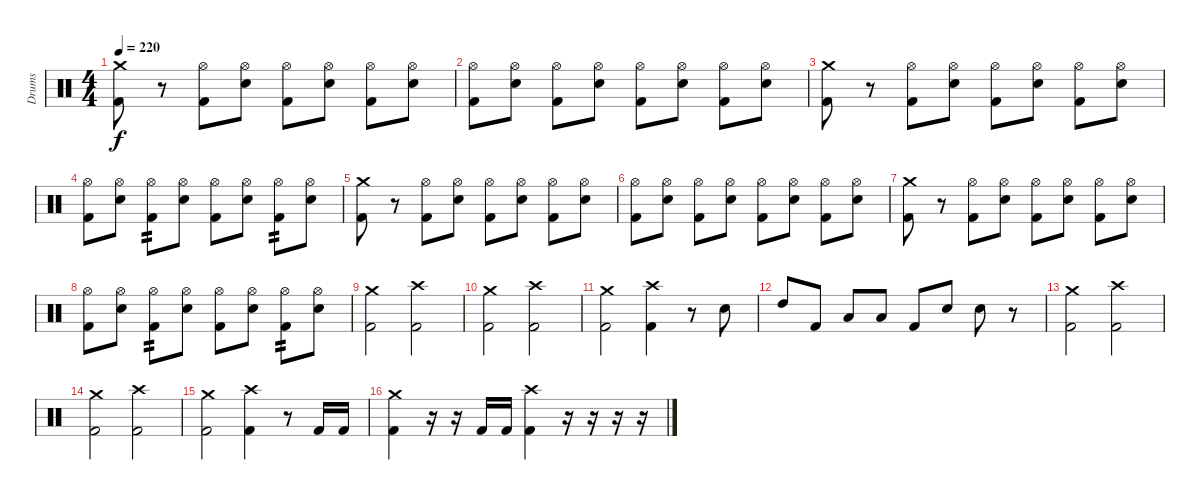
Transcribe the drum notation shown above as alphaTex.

\track ("Drums" "Drums") {instrument percussion}
\staff {score}
\articulation defaults
\ts (4 4)
\tempo 220
\clef neutral
\ks c
("Crash medium (hit)" "Kick (hit) 2").8{dy f} r.8 ("Hi-Hat (open)" "Kick (hit) 2").8 ("Hi-Hat (open)" "Snare (hit) 2").8 ("Hi-Hat (open)" "Kick (hit) 2").8 ("Hi-Hat (open)" "Snare (hit) 2").8 ("Hi-Hat (open)" "Kick (hit) 2").8 ("Hi-Hat (open)" "Snare (hit) 2").8 |
("Hi-Hat (open)" "Kick (hit) 2").8 ("Hi-Hat (open)" "Snare (hit) 2").8 ("Hi-Hat (open)" "Kick (hit) 2").8 ("Hi-Hat (open)" "Snare (hit) 2").8 ("Hi-Hat (open)" "Kick (hit) 2").8 ("Hi-Hat (open)" "Snare (hit) 2").8 ("Hi-Hat (open)" "Kick (hit) 2").8 ("Hi-Hat (open)" "Snare (hit) 2").8 |
("Crash medium (hit)" "Kick (hit) 2").8 r.8 ("Hi-Hat (open)" "Kick (hit) 2").8 ("Hi-Hat (open)" "Snare (hit) 2").8 ("Hi-Hat (open)" "Kick (hit) 2").8 ("Hi-Hat (open)" "Snare (hit) 2").8 ("Hi-Hat (open)" "Kick (hit) 2").8 ("Hi-Hat (open)" "Snare (hit) 2").8 |
("Hi-Hat (open)" "Kick (hit) 2").8 ("Hi-Hat (open)" "Snare (hit) 2").8 ("Hi-Hat (open)" "Kick (hit) 2").8{tp 2} ("Hi-Hat (open)" "Snare (hit) 2").8 ("Hi-Hat (open)" "Kick (hit) 2").8 ("Hi-Hat (open)" "Snare (hit) 2").8 ("Hi-Hat (open)" "Kick (hit) 2").8{tp 2} ("Hi-Hat (open)" "Snare (hit) 2").8 |
("Crash medium (hit)" "Kick (hit) 2").8 r.8 ("Hi-Hat (open)" "Kick (hit) 2").8 ("Hi-Hat (open)" "Snare (hit) 2").8 ("Hi-Hat (open)" "Kick (hit) 2").8 ("Hi-Hat (open)" "Snare (hit) 2").8 ("Hi-Hat (open)" "Kick (hit) 2").8 ("Hi-Hat (open)" "Snare (hit) 2").8 |
("Hi-Hat (open)" "Kick (hit) 2").8 ("Hi-Hat (open)" "Snare (hit) 2").8 ("Hi-Hat (open)" "Kick (hit) 2").8 ("Hi-Hat (open)" "Snare (hit) 2").8 ("Hi-Hat (open)" "Kick (hit) 2").8 ("Hi-Hat (open)" "Snare (hit) 2").8 ("Hi-Hat (open)" "Kick (hit) 2").8 ("Hi-Hat (open)" "Snare (hit) 2").8 |
("Crash medium (hit)" "Kick (hit) 2").8 r.8 ("Hi-Hat (open)" "Kick (hit) 2").8 ("Hi-Hat (open)" "Snare (hit) 2").8 ("Hi-Hat (open)" "Kick (hit) 2").8 ("Hi-Hat (open)" "Snare (hit) 2").8 ("Hi-Hat (open)" "Kick (hit) 2").8 ("Hi-Hat (open)" "Snare (hit) 2").8 |
("Hi-Hat (open)" "Kick (hit) 2").8 ("Hi-Hat (open)" "Snare (hit) 2").8 ("Hi-Hat (open)" "Kick (hit) 2").8{tp 2} ("Hi-Hat (open)" "Snare (hit) 2").8 ("Hi-Hat (open)" "Kick (hit) 2").8 ("Hi-Hat (open)" "Snare (hit) 2").8 ("Hi-Hat (open)" "Kick (hit) 2").8{tp 2} ("Hi-Hat (open)" "Snare (hit) 2").8 |
("Crash medium (hit)" "Kick (hit) 2").2 ("Crash high (hit)" "Kick (hit) 2").2 |
("Crash medium (hit)" "Kick (hit) 2").2 ("Crash high (hit)" "Kick (hit) 2").2 |
("Crash medium (hit)" "Kick (hit) 2").2 ("Crash high (hit)" "Kick (hit) 2").4 r.8 "Snare (hit) 2".8 |
"High Tom (hit)".8 "Kick (hit) 2".8 "Low Tom (hit)".8 "Low Tom (hit)".8 "Kick (hit) 2".8 "Snare (hit) 2".8 "Snare (hit) 2".8 r.8 |
("Crash medium (hit)" "Kick (hit) 2").2 ("Crash high (hit)" "Kick (hit) 2").2 |
("Crash medium (hit)" "Kick (hit) 2").2 ("Crash high (hit)" "Kick (hit) 2").2 |
("Crash medium (hit)" "Kick (hit) 2").2 ("Crash high (hit)" "Kick (hit) 2").4 r.8 "Kick (hit) 2".16 "Kick (hit) 2".16 |
("Crash medium (hit)" "Kick (hit) 2").4 r.16 r.16 "Kick (hit) 2".16 "Kick (hit) 2".16 ("Crash high (hit)" "Kick (hit) 2").4 r.16 r.16 r.16 r.16
